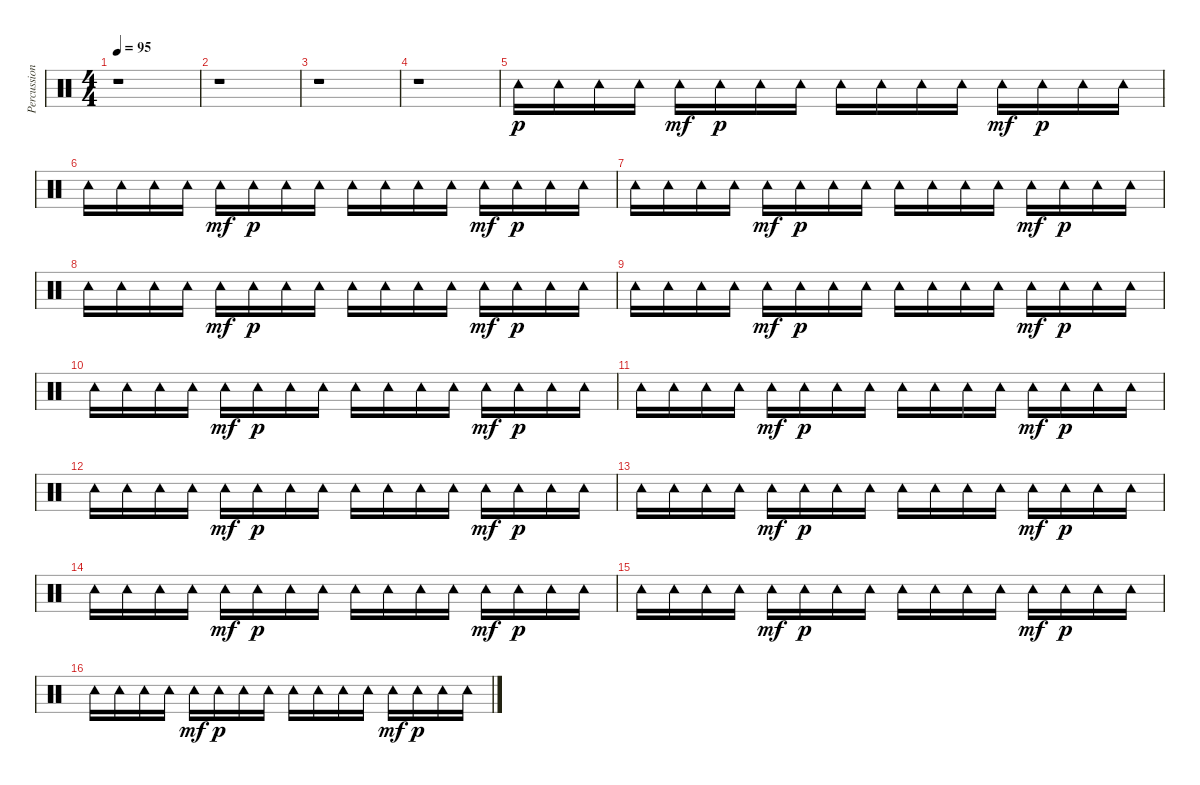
\track ("Percussion" "Percussion") {instrument percussion}
\staff {score}
\articulation defaults
\ts (4 4)
\tempo 95
\clef neutral
\ks c
r.1{dy p} |
r.1 |
r.1 |
r.1 |
"Tambourine (hit)".16 "Tambourine (hit)".16 "Tambourine (hit)".16 "Tambourine (hit)".16 "Tambourine (hit)".16{dy mf} "Tambourine (hit)".16{dy p} "Tambourine (hit)".16 "Tambourine (hit)".16 "Tambourine (hit)".16 "Tambourine (hit)".16 "Tambourine (hit)".16 "Tambourine (hit)".16 "Tambourine (hit)".16{dy mf} "Tambourine (hit)".16{dy p} "Tambourine (hit)".16 "Tambourine (hit)".16 |
"Tambourine (hit)".16 "Tambourine (hit)".16 "Tambourine (hit)".16 "Tambourine (hit)".16 "Tambourine (hit)".16{dy mf} "Tambourine (hit)".16{dy p} "Tambourine (hit)".16 "Tambourine (hit)".16 "Tambourine (hit)".16 "Tambourine (hit)".16 "Tambourine (hit)".16 "Tambourine (hit)".16 "Tambourine (hit)".16{dy mf} "Tambourine (hit)".16{dy p} "Tambourine (hit)".16 "Tambourine (hit)".16 |
"Tambourine (hit)".16 "Tambourine (hit)".16 "Tambourine (hit)".16 "Tambourine (hit)".16 "Tambourine (hit)".16{dy mf} "Tambourine (hit)".16{dy p} "Tambourine (hit)".16 "Tambourine (hit)".16 "Tambourine (hit)".16 "Tambourine (hit)".16 "Tambourine (hit)".16 "Tambourine (hit)".16 "Tambourine (hit)".16{dy mf} "Tambourine (hit)".16{dy p} "Tambourine (hit)".16 "Tambourine (hit)".16 |
"Tambourine (hit)".16 "Tambourine (hit)".16 "Tambourine (hit)".16 "Tambourine (hit)".16 "Tambourine (hit)".16{dy mf} "Tambourine (hit)".16{dy p} "Tambourine (hit)".16 "Tambourine (hit)".16 "Tambourine (hit)".16 "Tambourine (hit)".16 "Tambourine (hit)".16 "Tambourine (hit)".16 "Tambourine (hit)".16{dy mf} "Tambourine (hit)".16{dy p} "Tambourine (hit)".16 "Tambourine (hit)".16 |
"Tambourine (hit)".16 "Tambourine (hit)".16 "Tambourine (hit)".16 "Tambourine (hit)".16 "Tambourine (hit)".16{dy mf} "Tambourine (hit)".16{dy p} "Tambourine (hit)".16 "Tambourine (hit)".16 "Tambourine (hit)".16 "Tambourine (hit)".16 "Tambourine (hit)".16 "Tambourine (hit)".16 "Tambourine (hit)".16{dy mf} "Tambourine (hit)".16{dy p} "Tambourine (hit)".16 "Tambourine (hit)".16 |
"Tambourine (hit)".16 "Tambourine (hit)".16 "Tambourine (hit)".16 "Tambourine (hit)".16 "Tambourine (hit)".16{dy mf} "Tambourine (hit)".16{dy p} "Tambourine (hit)".16 "Tambourine (hit)".16 "Tambourine (hit)".16 "Tambourine (hit)".16 "Tambourine (hit)".16 "Tambourine (hit)".16 "Tambourine (hit)".16{dy mf} "Tambourine (hit)".16{dy p} "Tambourine (hit)".16 "Tambourine (hit)".16 |
"Tambourine (hit)".16 "Tambourine (hit)".16 "Tambourine (hit)".16 "Tambourine (hit)".16 "Tambourine (hit)".16{dy mf} "Tambourine (hit)".16{dy p} "Tambourine (hit)".16 "Tambourine (hit)".16 "Tambourine (hit)".16 "Tambourine (hit)".16 "Tambourine (hit)".16 "Tambourine (hit)".16 "Tambourine (hit)".16{dy mf} "Tambourine (hit)".16{dy p} "Tambourine (hit)".16 "Tambourine (hit)".16 |
"Tambourine (hit)".16 "Tambourine (hit)".16 "Tambourine (hit)".16 "Tambourine (hit)".16 "Tambourine (hit)".16{dy mf} "Tambourine (hit)".16{dy p} "Tambourine (hit)".16 "Tambourine (hit)".16 "Tambourine (hit)".16 "Tambourine (hit)".16 "Tambourine (hit)".16 "Tambourine (hit)".16 "Tambourine (hit)".16{dy mf} "Tambourine (hit)".16{dy p} "Tambourine (hit)".16 "Tambourine (hit)".16 |
"Tambourine (hit)".16 "Tambourine (hit)".16 "Tambourine (hit)".16 "Tambourine (hit)".16 "Tambourine (hit)".16{dy mf} "Tambourine (hit)".16{dy p} "Tambourine (hit)".16 "Tambourine (hit)".16 "Tambourine (hit)".16 "Tambourine (hit)".16 "Tambourine (hit)".16 "Tambourine (hit)".16 "Tambourine (hit)".16{dy mf} "Tambourine (hit)".16{dy p} "Tambourine (hit)".16 "Tambourine (hit)".16 |
"Tambourine (hit)".16 "Tambourine (hit)".16 "Tambourine (hit)".16 "Tambourine (hit)".16 "Tambourine (hit)".16{dy mf} "Tambourine (hit)".16{dy p} "Tambourine (hit)".16 "Tambourine (hit)".16 "Tambourine (hit)".16 "Tambourine (hit)".16 "Tambourine (hit)".16 "Tambourine (hit)".16 "Tambourine (hit)".16{dy mf} "Tambourine (hit)".16{dy p} "Tambourine (hit)".16 "Tambourine (hit)".16 |
"Tambourine (hit)".16 "Tambourine (hit)".16 "Tambourine (hit)".16 "Tambourine (hit)".16 "Tambourine (hit)".16{dy mf} "Tambourine (hit)".16{dy p} "Tambourine (hit)".16 "Tambourine (hit)".16 "Tambourine (hit)".16 "Tambourine (hit)".16 "Tambourine (hit)".16 "Tambourine (hit)".16 "Tambourine (hit)".16{dy mf} "Tambourine (hit)".16{dy p} "Tambourine (hit)".16 "Tambourine (hit)".16 |
"Tambourine (hit)".16 "Tambourine (hit)".16 "Tambourine (hit)".16 "Tambourine (hit)".16 "Tambourine (hit)".16{dy mf} "Tambourine (hit)".16{dy p} "Tambourine (hit)".16 "Tambourine (hit)".16 "Tambourine (hit)".16 "Tambourine (hit)".16 "Tambourine (hit)".16 "Tambourine (hit)".16 "Tambourine (hit)".16{dy mf} "Tambourine (hit)".16{dy p} "Tambourine (hit)".16 "Tambourine (hit)".16
